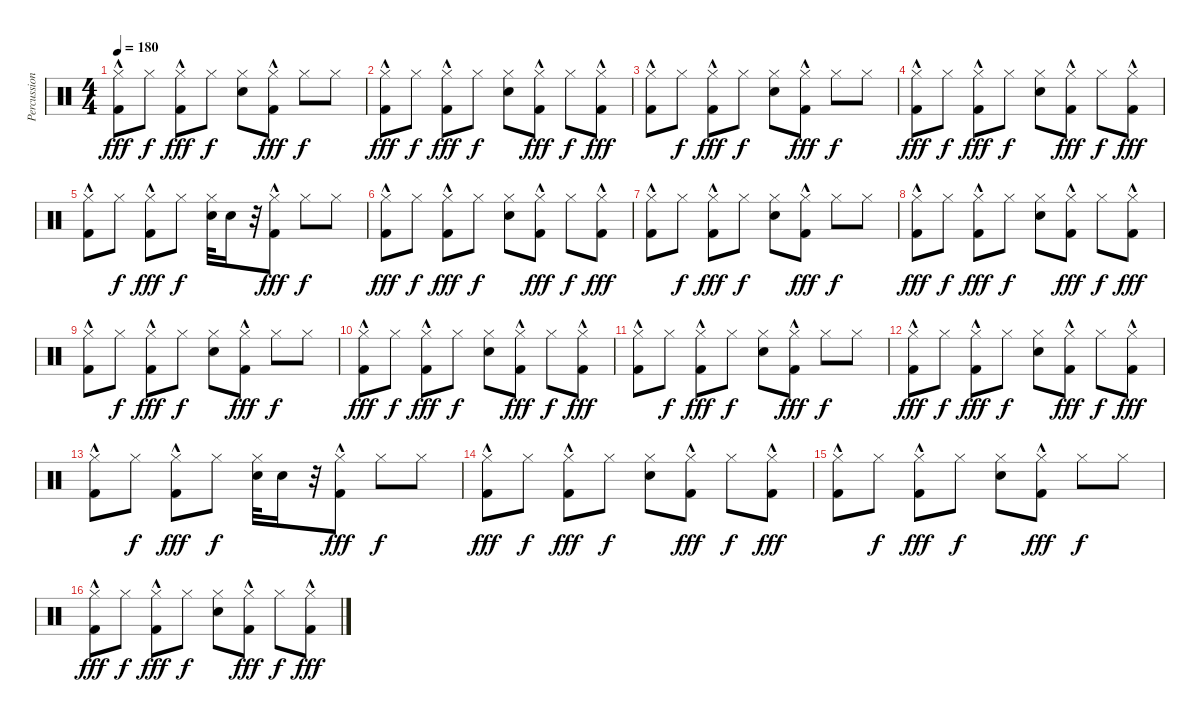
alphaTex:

\track ("Percussion" "Percussion") {instrument percussion}
\staff {score}
\articulation defaults
\ts (4 4)
\tempo 180
\clef neutral
\ks c
("Hi-Hat (closed)" "Kick (hit) 2"{hac}).8{dy fff} "Hi-Hat (closed)".8{dy f} ("Hi-Hat (closed)" "Kick (hit) 2"{hac}).8{dy fff} "Hi-Hat (closed)".8{dy f} ("Hi-Hat (closed)" "Electric Snare (hit)").8 ("Hi-Hat (closed)" "Kick (hit) 2"{hac}).8{dy fff} "Hi-Hat (closed)".8{dy f} "Hi-Hat (closed)".8 |
("Hi-Hat (closed)" "Kick (hit) 2"{hac}).8{dy fff} "Hi-Hat (closed)".8{dy f} ("Hi-Hat (closed)" "Kick (hit) 2"{hac}).8{dy fff} "Hi-Hat (closed)".8{dy f} ("Hi-Hat (closed)" "Electric Snare (hit)").8 ("Hi-Hat (closed)" "Kick (hit) 2"{hac}).8{dy fff} "Hi-Hat (closed)".8{dy f} ("Hi-Hat (closed)" "Kick (hit) 2"{hac}).8{dy fff} |
("Hi-Hat (closed)" "Kick (hit) 2"{hac}).8 "Hi-Hat (closed)".8{dy f} ("Hi-Hat (closed)" "Kick (hit) 2"{hac}).8{dy fff} "Hi-Hat (closed)".8{dy f} ("Hi-Hat (closed)" "Electric Snare (hit)").8 ("Hi-Hat (closed)" "Kick (hit) 2"{hac}).8{dy fff} "Hi-Hat (closed)".8{dy f} "Hi-Hat (closed)".8 |
("Hi-Hat (closed)" "Kick (hit) 2"{hac}).8{dy fff} "Hi-Hat (closed)".8{dy f} ("Hi-Hat (closed)" "Kick (hit) 2"{hac}).8{dy fff} "Hi-Hat (closed)".8{dy f} ("Hi-Hat (closed)" "Electric Snare (hit)").8 ("Hi-Hat (closed)" "Kick (hit) 2"{hac}).8{dy fff} "Hi-Hat (closed)".8{dy f} ("Hi-Hat (closed)" "Kick (hit) 2"{hac}).8{dy fff} |
("Hi-Hat (closed)" "Kick (hit) 2"{hac}).8 "Hi-Hat (closed)".8{dy f} ("Hi-Hat (closed)" "Kick (hit) 2"{hac}).8{dy fff} "Hi-Hat (closed)".8{dy f} ("Hi-Hat (closed)" "Electric Snare (hit)").32 "Electric Snare (hit)".16 r.32 ("Hi-Hat (closed)" "Kick (hit) 2"{hac}).8{dy fff} "Hi-Hat (closed)".8{dy f} "Hi-Hat (closed)".8 |
("Hi-Hat (closed)" "Kick (hit) 2"{hac}).8{dy fff} "Hi-Hat (closed)".8{dy f} ("Hi-Hat (closed)" "Kick (hit) 2"{hac}).8{dy fff} "Hi-Hat (closed)".8{dy f} ("Hi-Hat (closed)" "Electric Snare (hit)").8 ("Hi-Hat (closed)" "Kick (hit) 2"{hac}).8{dy fff} "Hi-Hat (closed)".8{dy f} ("Hi-Hat (closed)" "Kick (hit) 2"{hac}).8{dy fff} |
("Hi-Hat (closed)" "Kick (hit) 2"{hac}).8 "Hi-Hat (closed)".8{dy f} ("Hi-Hat (closed)" "Kick (hit) 2"{hac}).8{dy fff} "Hi-Hat (closed)".8{dy f} ("Hi-Hat (closed)" "Electric Snare (hit)").8 ("Hi-Hat (closed)" "Kick (hit) 2"{hac}).8{dy fff} "Hi-Hat (closed)".8{dy f} "Hi-Hat (closed)".8 |
("Hi-Hat (closed)" "Kick (hit) 2"{hac}).8{dy fff} "Hi-Hat (closed)".8{dy f} ("Hi-Hat (closed)" "Kick (hit) 2"{hac}).8{dy fff} "Hi-Hat (closed)".8{dy f} ("Hi-Hat (closed)" "Electric Snare (hit)").8 ("Hi-Hat (closed)" "Kick (hit) 2"{hac}).8{dy fff} "Hi-Hat (closed)".8{dy f} ("Hi-Hat (closed)" "Kick (hit) 2"{hac}).8{dy fff} |
("Hi-Hat (closed)" "Kick (hit) 2"{hac}).8 "Hi-Hat (closed)".8{dy f} ("Hi-Hat (closed)" "Kick (hit) 2"{hac}).8{dy fff} "Hi-Hat (closed)".8{dy f} ("Hi-Hat (closed)" "Electric Snare (hit)").8 ("Hi-Hat (closed)" "Kick (hit) 2"{hac}).8{dy fff} "Hi-Hat (closed)".8{dy f} "Hi-Hat (closed)".8 |
("Hi-Hat (closed)" "Kick (hit) 2"{hac}).8{dy fff} "Hi-Hat (closed)".8{dy f} ("Hi-Hat (closed)" "Kick (hit) 2"{hac}).8{dy fff} "Hi-Hat (closed)".8{dy f} ("Hi-Hat (closed)" "Electric Snare (hit)").8 ("Hi-Hat (closed)" "Kick (hit) 2"{hac}).8{dy fff} "Hi-Hat (closed)".8{dy f} ("Hi-Hat (closed)" "Kick (hit) 2"{hac}).8{dy fff} |
("Hi-Hat (closed)" "Kick (hit) 2"{hac}).8 "Hi-Hat (closed)".8{dy f} ("Hi-Hat (closed)" "Kick (hit) 2"{hac}).8{dy fff} "Hi-Hat (closed)".8{dy f} ("Hi-Hat (closed)" "Electric Snare (hit)").8 ("Hi-Hat (closed)" "Kick (hit) 2"{hac}).8{dy fff} "Hi-Hat (closed)".8{dy f} "Hi-Hat (closed)".8 |
("Hi-Hat (closed)" "Kick (hit) 2"{hac}).8{dy fff} "Hi-Hat (closed)".8{dy f} ("Hi-Hat (closed)" "Kick (hit) 2"{hac}).8{dy fff} "Hi-Hat (closed)".8{dy f} ("Hi-Hat (closed)" "Electric Snare (hit)").8 ("Hi-Hat (closed)" "Kick (hit) 2"{hac}).8{dy fff} "Hi-Hat (closed)".8{dy f} ("Hi-Hat (closed)" "Kick (hit) 2"{hac}).8{dy fff} |
("Hi-Hat (closed)" "Kick (hit) 2"{hac}).8 "Hi-Hat (closed)".8{dy f} ("Hi-Hat (closed)" "Kick (hit) 2"{hac}).8{dy fff} "Hi-Hat (closed)".8{dy f} ("Hi-Hat (closed)" "Electric Snare (hit)").32 "Electric Snare (hit)".16 r.32 ("Hi-Hat (closed)" "Kick (hit) 2"{hac}).8{dy fff} "Hi-Hat (closed)".8{dy f} "Hi-Hat (closed)".8 |
("Hi-Hat (closed)" "Kick (hit) 2"{hac}).8{dy fff} "Hi-Hat (closed)".8{dy f} ("Hi-Hat (closed)" "Kick (hit) 2"{hac}).8{dy fff} "Hi-Hat (closed)".8{dy f} ("Hi-Hat (closed)" "Electric Snare (hit)").8 ("Hi-Hat (closed)" "Kick (hit) 2"{hac}).8{dy fff} "Hi-Hat (closed)".8{dy f} ("Hi-Hat (closed)" "Kick (hit) 2"{hac}).8{dy fff} |
("Hi-Hat (closed)" "Kick (hit) 2"{hac}).8 "Hi-Hat (closed)".8{dy f} ("Hi-Hat (closed)" "Kick (hit) 2"{hac}).8{dy fff} "Hi-Hat (closed)".8{dy f} ("Hi-Hat (closed)" "Electric Snare (hit)").8 ("Hi-Hat (closed)" "Kick (hit) 2"{hac}).8{dy fff} "Hi-Hat (closed)".8{dy f} "Hi-Hat (closed)".8 |
("Hi-Hat (closed)" "Kick (hit) 2"{hac}).8{dy fff} "Hi-Hat (closed)".8{dy f} ("Hi-Hat (closed)" "Kick (hit) 2"{hac}).8{dy fff} "Hi-Hat (closed)".8{dy f} ("Hi-Hat (closed)" "Electric Snare (hit)").8 ("Hi-Hat (closed)" "Kick (hit) 2"{hac}).8{dy fff} "Hi-Hat (closed)".8{dy f} ("Hi-Hat (closed)" "Kick (hit) 2"{hac}).8{dy fff}
